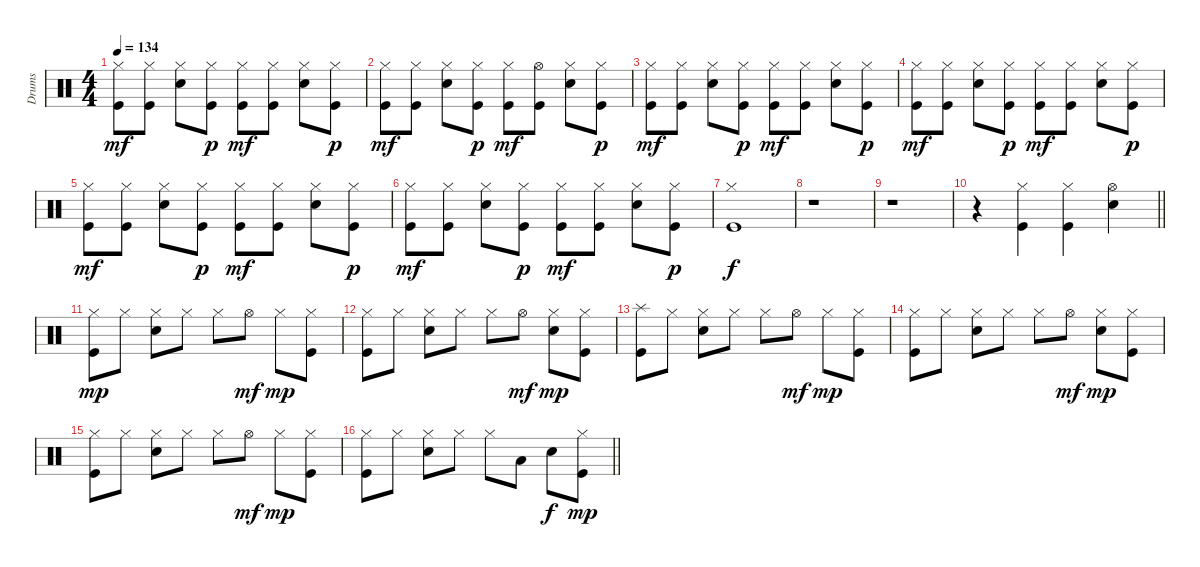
\track ("Drums" "Drums") {instrument percussion}
\staff {score}
\articulation defaults
\ts (4 4)
\tempo 134
\clef neutral
\ks c
("Hi-Hat (closed)" "Kick (hit)").8{dy mf} ("Hi-Hat (closed)" "Kick (hit)").8 ("Hi-Hat (closed)" "Snare (hit) 2").8 ("Hi-Hat (closed)" "Kick (hit)").8{dy p} ("Hi-Hat (closed)" "Kick (hit)").8{dy mf} ("Hi-Hat (closed)" "Kick (hit)").8 ("Hi-Hat (closed)" "Snare (hit) 2").8 ("Hi-Hat (closed)" "Kick (hit)").8{dy p} |
("Hi-Hat (closed)" "Kick (hit)").8{dy mf} ("Hi-Hat (closed)" "Kick (hit)").8 ("Hi-Hat (closed)" "Snare (hit) 2").8 ("Hi-Hat (closed)" "Kick (hit)").8{dy p} ("Hi-Hat (closed)" "Kick (hit)").8{dy mf} ("Hi-Hat (open)" "Kick (hit)").8 ("Hi-Hat (closed)" "Snare (hit) 2").8 ("Hi-Hat (closed)" "Kick (hit)").8{dy p} |
("Hi-Hat (closed)" "Kick (hit)").8{dy mf} ("Hi-Hat (closed)" "Kick (hit)").8 ("Hi-Hat (closed)" "Snare (hit) 2").8 ("Hi-Hat (closed)" "Kick (hit)").8{dy p} ("Hi-Hat (closed)" "Kick (hit)").8{dy mf} ("Hi-Hat (closed)" "Kick (hit)").8 ("Hi-Hat (closed)" "Snare (hit) 2").8 ("Hi-Hat (closed)" "Kick (hit)").8{dy p} |
("Hi-Hat (closed)" "Kick (hit)").8{dy mf} ("Hi-Hat (closed)" "Kick (hit)").8 ("Hi-Hat (closed)" "Snare (hit) 2").8 ("Hi-Hat (closed)" "Kick (hit)").8{dy p} ("Hi-Hat (closed)" "Kick (hit)").8{dy mf} ("Hi-Hat (closed)" "Kick (hit)").8 ("Hi-Hat (closed)" "Snare (hit) 2").8 ("Hi-Hat (closed)" "Kick (hit)").8{dy p} |
("Hi-Hat (closed)" "Kick (hit)").8{dy mf} ("Hi-Hat (closed)" "Kick (hit)").8 ("Hi-Hat (closed)" "Snare (hit) 2").8 ("Hi-Hat (closed)" "Kick (hit)").8{dy p} ("Hi-Hat (closed)" "Kick (hit)").8{dy mf} ("Hi-Hat (closed)" "Kick (hit)").8 ("Hi-Hat (closed)" "Snare (hit) 2").8 ("Hi-Hat (closed)" "Kick (hit)").8{dy p} |
("Hi-Hat (closed)" "Kick (hit)").8{dy mf} ("Hi-Hat (closed)" "Kick (hit)").8 ("Hi-Hat (closed)" "Snare (hit) 2").8 ("Hi-Hat (closed)" "Kick (hit)").8{dy p} ("Hi-Hat (closed)" "Kick (hit)").8{dy mf} ("Hi-Hat (closed)" "Kick (hit)").8 ("Hi-Hat (closed)" "Snare (hit) 2").8 ("Hi-Hat (closed)" "Kick (hit)").8{dy p} |
("Hi-Hat (closed)" "Kick (hit)").1{dy f} |
r.1 |
r.1 |
\barLineRight lightlight
r.4 ("Hi-Hat (closed)" "Kick (hit)").4 ("Hi-Hat (closed)" "Kick (hit)").4 ("Hi-Hat (open)" "Snare (hit) 2").4 |
("Hi-Hat (closed)" "Kick (hit)").8{dy mp} "Hi-Hat (closed)".8 ("Hi-Hat (closed)" "Snare (hit) 2").8 "Hi-Hat (closed)".8 "Hi-Hat (closed)".8 "Hi-Hat (open)".8{dy mf} "Hi-Hat (closed)".8{dy mp} ("Hi-Hat (closed)" "Kick (hit)").8 |
("Hi-Hat (closed)" "Kick (hit)").8 "Hi-Hat (closed)".8 ("Hi-Hat (closed)" "Snare (hit) 2").8 "Hi-Hat (closed)".8 "Hi-Hat (closed)".8 "Hi-Hat (open)".8{dy mf} ("Hi-Hat (closed)" "Snare (hit) 2").8{dy mp} ("Hi-Hat (closed)" "Kick (hit)").8 |
("Splash (hit)" "Kick (hit)").8 "Hi-Hat (closed)".8 ("Hi-Hat (closed)" "Snare (hit) 2").8 "Hi-Hat (closed)".8 "Hi-Hat (closed)".8 "Hi-Hat (open)".8{dy mf} "Hi-Hat (closed)".8{dy mp} ("Hi-Hat (closed)" "Kick (hit)").8 |
("Hi-Hat (closed)" "Kick (hit)").8 "Hi-Hat (closed)".8 ("Hi-Hat (closed)" "Snare (hit) 2").8 "Hi-Hat (closed)".8 "Hi-Hat (closed)".8 "Hi-Hat (open)".8{dy mf} ("Hi-Hat (closed)" "Snare (hit) 2").8{dy mp} ("Hi-Hat (closed)" "Kick (hit)").8 |
("Hi-Hat (closed)" "Kick (hit)").8 "Hi-Hat (closed)".8 ("Hi-Hat (closed)" "Snare (hit) 2").8 "Hi-Hat (closed)".8 "Hi-Hat (closed)".8 "Hi-Hat (open)".8{dy mf} "Hi-Hat (closed)".8{dy mp} ("Hi-Hat (closed)" "Kick (hit)").8 |
\barLineRight lightlight
("Hi-Hat (closed)" "Kick (hit)").8 "Hi-Hat (closed)".8 ("Hi-Hat (closed)" "Snare (hit) 2").8 "Hi-Hat (closed)".8 "Hi-Hat (closed)".8 "Low Tom (hit)".8 "Snare (hit) 2".8{dy f} ("Hi-Hat (closed)" "Kick (hit)").8{dy mp}
